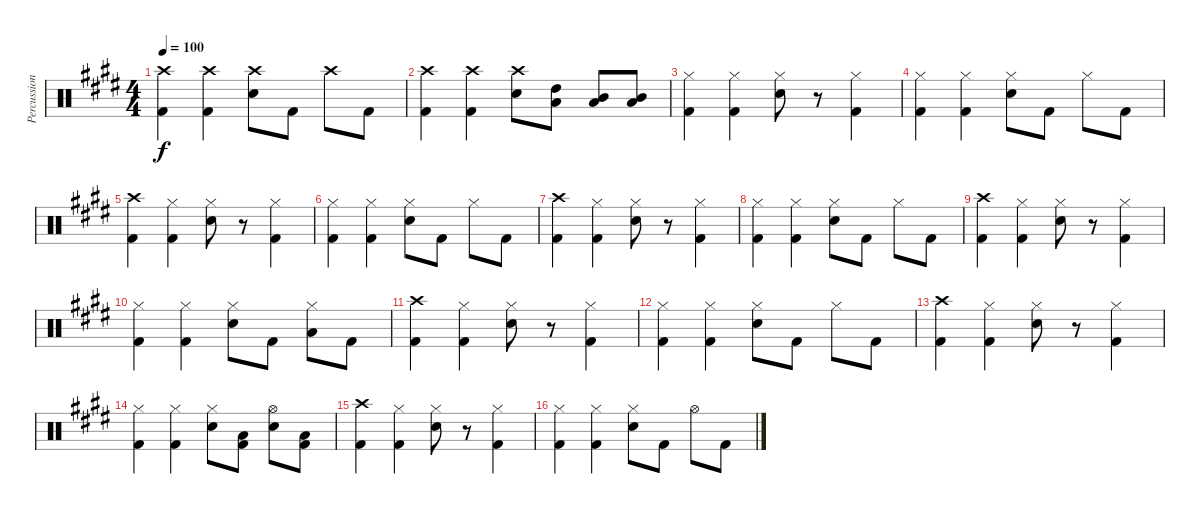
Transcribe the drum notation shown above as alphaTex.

\track ("Percussion" "Percussion") {instrument percussion}
\staff {score}
\articulation defaults
\ts (4 4)
\tempo 100
\clef neutral
\ks e
("Crash high (hit)" "Kick (hit) 2").4{dy f} ("Crash high (hit)" "Kick (hit) 2").4 ("Crash high (hit)" "Snare (hit) 2").8 "Kick (hit) 2".8 "Crash high (hit)".8 "Kick (hit) 2".8 |
("Crash high (hit)" "Kick (hit) 2").4 ("Crash high (hit)" "Kick (hit) 2").4 ("Crash high (hit)" "Snare (hit) 2").8 ("High Tom (hit)" "Low Tom (hit)").8 ("Mid Tom (hit)" "Low Tom (hit)").8 ("Mid Tom (hit)" "Low Tom (hit)").8 |
("Hi-Hat (closed)" "Kick (hit) 2").4 ("Hi-Hat (closed)" "Kick (hit) 2").4 ("Hi-Hat (closed)" "Electric Snare (hit)").8 r.8 ("Hi-Hat (closed)" "Kick (hit) 2").4 |
("Hi-Hat (closed)" "Kick (hit) 2").4 ("Hi-Hat (closed)" "Kick (hit) 2").4 ("Hi-Hat (closed)" "Electric Snare (hit)").8 "Kick (hit) 2".8 "Hi-Hat (closed)".8 "Kick (hit) 2".8 |
("Crash high (hit)" "Kick (hit) 2").4 ("Hi-Hat (closed)" "Kick (hit) 2").4 ("Hi-Hat (closed)" "Electric Snare (hit)").8 r.8 ("Hi-Hat (closed)" "Kick (hit) 2").4 |
("Hi-Hat (closed)" "Kick (hit) 2").4 ("Hi-Hat (closed)" "Kick (hit) 2").4 ("Hi-Hat (closed)" "Electric Snare (hit)").8 "Kick (hit) 2".8 "Hi-Hat (closed)".8 "Kick (hit) 2".8 |
("Crash high (hit)" "Kick (hit) 2").4 ("Hi-Hat (closed)" "Kick (hit) 2").4 ("Hi-Hat (closed)" "Electric Snare (hit)").8 r.8 ("Hi-Hat (closed)" "Kick (hit) 2").4 |
("Hi-Hat (closed)" "Kick (hit) 2").4 ("Hi-Hat (closed)" "Kick (hit) 2").4 ("Hi-Hat (closed)" "Electric Snare (hit)").8 "Kick (hit) 2".8 "Hi-Hat (closed)".8 "Kick (hit) 2".8 |
("Crash high (hit)" "Kick (hit) 2").4 ("Hi-Hat (closed)" "Kick (hit) 2").4 ("Hi-Hat (closed)" "Electric Snare (hit)").8 r.8 ("Hi-Hat (closed)" "Kick (hit) 2").4 |
("Hi-Hat (closed)" "Kick (hit) 2").4 ("Hi-Hat (closed)" "Kick (hit) 2").4 ("Hi-Hat (closed)" "Electric Snare (hit)").8 "Kick (hit) 2".8 ("Hi-Hat (closed)" "Low Tom (hit)").8 "Kick (hit) 2".8 |
("Crash high (hit)" "Kick (hit) 2").4 ("Hi-Hat (closed)" "Kick (hit) 2").4 ("Hi-Hat (closed)" "Electric Snare (hit)").8 r.8 ("Hi-Hat (closed)" "Kick (hit) 2").4 |
("Hi-Hat (closed)" "Kick (hit) 2").4 ("Hi-Hat (closed)" "Kick (hit) 2").4 ("Hi-Hat (closed)" "Electric Snare (hit)").8 "Kick (hit) 2".8 "Hi-Hat (closed)".8 "Kick (hit) 2".8 |
("Crash high (hit)" "Kick (hit) 2").4 ("Hi-Hat (closed)" "Kick (hit) 2").4 ("Hi-Hat (closed)" "Electric Snare (hit)").8 r.8 ("Hi-Hat (closed)" "Kick (hit) 2").4 |
("Hi-Hat (closed)" "Kick (hit) 2").4 ("Hi-Hat (closed)" "Kick (hit) 2").4 ("Hi-Hat (closed)" "Electric Snare (hit)").8 ("Low Tom (hit)" "Kick (hit) 2").8 ("Hi-Hat (open)" "Electric Snare (hit)").8 ("Low Tom (hit)" "Kick (hit) 2").8 |
("Crash high (hit)" "Kick (hit) 2").4 ("Hi-Hat (closed)" "Kick (hit) 2").4 ("Hi-Hat (closed)" "Electric Snare (hit)").8 r.8 ("Hi-Hat (closed)" "Kick (hit) 2").4 |
("Hi-Hat (closed)" "Kick (hit) 2").4 ("Hi-Hat (closed)" "Kick (hit) 2").4 ("Hi-Hat (closed)" "Electric Snare (hit)").8 "Kick (hit) 2".8 "Hi-Hat (open)".8 "Kick (hit) 2".8
